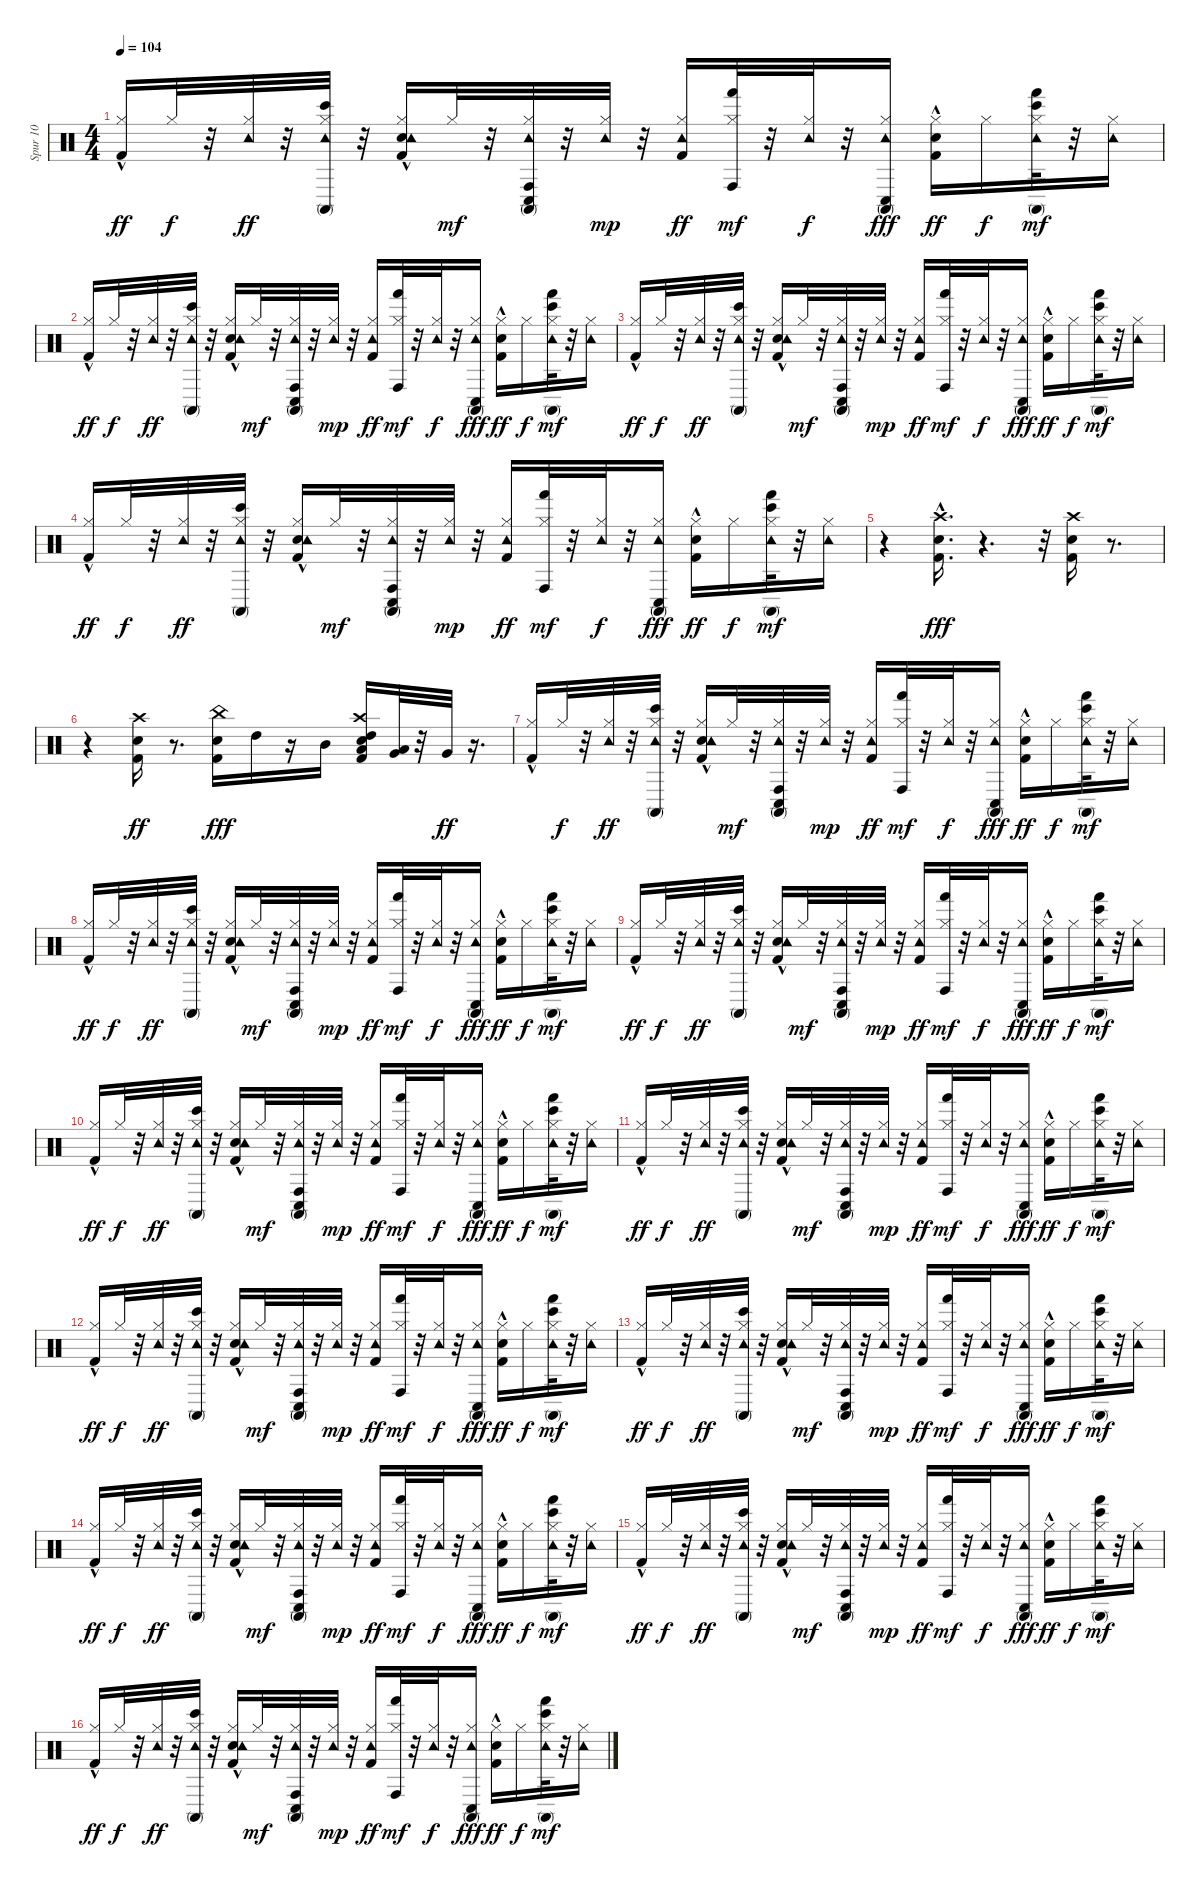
\track ("Spur 10" "Spur 10") {instrument percussion}
\staff {score}
\articulation defaults
\ts (4 4)
\tempo 104
\clef neutral
\ks c
("Kick (hit) 2"{hac} "Hi-Hat (closed)").16{dy ff} "Hi-Hat (closed)".32{dy f} r.32 ("Tambourine (hit)" "Hi-Hat (closed)").32{dy ff} r.32 ("Bongo High (hit)" "Conga high (mute)" "Tambourine (hit)" "Hi-Hat (closed)").32 r.32 ("Electric Snare (hit)" "Kick (hit) 2"{hac} "Tambourine (hit)" "Hi-Hat (closed)").16 "Hi-Hat (closed)".32{dy mf} r.32 ("Conga high (hit)" "Conga low (hit)" "Conga high (mute)" "Tambourine (hit)" "Hi-Hat (closed)").32 r.32 ("Tambourine (hit)" "Hi-Hat (closed)").32{dy mp} r.32 ("Kick (hit) 2" "Tambourine (hit)" "Hi-Hat (closed)").16{dy ff} ("Hand (hit)" "Conga high (hit)" "Hi-Hat (closed)").32{dy mf} r.32 ("Tambourine (hit)" "Hi-Hat (closed)").32{dy f} r.32 ("Conga high (mute)" "Conga low (hit)" "Tambourine (hit)" "Hi-Hat (closed)").16{dy fff} ("Electric Snare (hit)"{hac} "Kick (hit) 2" "Hi-Hat (closed)").16{dy ff} "Hi-Hat (closed)".16{dy f} ("Hand (hit)" "Bongo High (hit)" "Conga high (mute)" "Tambourine (hit)" "Hi-Hat (closed)").32{dy mf} r.32 ("Tambourine (hit)" "Hi-Hat (closed)").16 |
("Kick (hit) 2"{hac} "Hi-Hat (closed)").16{dy ff} "Hi-Hat (closed)".32{dy f} r.32 ("Tambourine (hit)" "Hi-Hat (closed)").32{dy ff} r.32 ("Bongo High (hit)" "Conga high (mute)" "Tambourine (hit)" "Hi-Hat (closed)").32 r.32 ("Electric Snare (hit)" "Kick (hit) 2"{hac} "Tambourine (hit)" "Hi-Hat (closed)").16 "Hi-Hat (closed)".32{dy mf} r.32 ("Conga high (hit)" "Conga low (hit)" "Conga high (mute)" "Tambourine (hit)" "Hi-Hat (closed)").32 r.32 ("Tambourine (hit)" "Hi-Hat (closed)").32{dy mp} r.32 ("Kick (hit) 2" "Tambourine (hit)" "Hi-Hat (closed)").16{dy ff} ("Hand (hit)" "Conga high (hit)" "Hi-Hat (closed)").32{dy mf} r.32 ("Tambourine (hit)" "Hi-Hat (closed)").32{dy f} r.32 ("Conga high (mute)" "Conga low (hit)" "Tambourine (hit)" "Hi-Hat (closed)").16{dy fff} ("Electric Snare (hit)"{hac} "Kick (hit) 2" "Hi-Hat (closed)").16{dy ff} "Hi-Hat (closed)".16{dy f} ("Hand (hit)" "Bongo High (hit)" "Conga high (mute)" "Tambourine (hit)" "Hi-Hat (closed)").32{dy mf} r.32 ("Tambourine (hit)" "Hi-Hat (closed)").16 |
("Kick (hit) 2"{hac} "Hi-Hat (closed)").16{dy ff} "Hi-Hat (closed)".32{dy f} r.32 ("Tambourine (hit)" "Hi-Hat (closed)").32{dy ff} r.32 ("Bongo High (hit)" "Conga high (mute)" "Tambourine (hit)" "Hi-Hat (closed)").32 r.32 ("Electric Snare (hit)" "Kick (hit) 2"{hac} "Tambourine (hit)" "Hi-Hat (closed)").16 "Hi-Hat (closed)".32{dy mf} r.32 ("Conga high (hit)" "Conga low (hit)" "Conga high (mute)" "Tambourine (hit)" "Hi-Hat (closed)").32 r.32 ("Tambourine (hit)" "Hi-Hat (closed)").32{dy mp} r.32 ("Kick (hit) 2" "Tambourine (hit)" "Hi-Hat (closed)").16{dy ff} ("Hand (hit)" "Conga high (hit)" "Hi-Hat (closed)").32{dy mf} r.32 ("Tambourine (hit)" "Hi-Hat (closed)").32{dy f} r.32 ("Conga high (mute)" "Conga low (hit)" "Tambourine (hit)" "Hi-Hat (closed)").16{dy fff} ("Electric Snare (hit)"{hac} "Kick (hit) 2" "Hi-Hat (closed)").16{dy ff} "Hi-Hat (closed)".16{dy f} ("Hand (hit)" "Bongo High (hit)" "Conga high (mute)" "Tambourine (hit)" "Hi-Hat (closed)").32{dy mf} r.32 ("Tambourine (hit)" "Hi-Hat (closed)").16 |
("Kick (hit) 2"{hac} "Hi-Hat (closed)").16{dy ff} "Hi-Hat (closed)".32{dy f} r.32 ("Tambourine (hit)" "Hi-Hat (closed)").32{dy ff} r.32 ("Bongo High (hit)" "Conga high (mute)" "Tambourine (hit)" "Hi-Hat (closed)").32 r.32 ("Electric Snare (hit)" "Kick (hit) 2"{hac} "Tambourine (hit)" "Hi-Hat (closed)").16 "Hi-Hat (closed)".32{dy mf} r.32 ("Conga high (hit)" "Conga low (hit)" "Conga high (mute)" "Tambourine (hit)" "Hi-Hat (closed)").32 r.32 ("Tambourine (hit)" "Hi-Hat (closed)").32{dy mp} r.32 ("Kick (hit) 2" "Tambourine (hit)" "Hi-Hat (closed)").16{dy ff} ("Hand (hit)" "Conga high (hit)" "Hi-Hat (closed)").32{dy mf} r.32 ("Tambourine (hit)" "Hi-Hat (closed)").32{dy f} r.32 ("Conga high (mute)" "Conga low (hit)" "Tambourine (hit)" "Hi-Hat (closed)").16{dy fff} ("Electric Snare (hit)"{hac} "Kick (hit) 2" "Hi-Hat (closed)").16{dy ff} "Hi-Hat (closed)".16{dy f} ("Hand (hit)" "Bongo High (hit)" "Conga high (mute)" "Tambourine (hit)" "Hi-Hat (closed)").32{dy mf} r.32 ("Tambourine (hit)" "Hi-Hat (closed)").16 |
r.4 ("Electric Snare (hit)"{hac} "Kick (hit) 2"{hac} "Crash high (hit)").16{d dy fff} r.4{d} r.32 ("Electric Snare (hit)" "Crash high (hit)" "Kick (hit) 2").16 r.8{d} |
r.4 ("Electric Snare (hit)" "Kick (hit) 2" "Crash high (hit)").16{dy ff} r.8{d} ("China (hit)" "Kick (hit) 2" "Electric Snare (hit)").16{dy fff} "High Tom (hit)".16 r.16 "Mid Tom (hit)".16 ("Crash high (hit)" "High Tom (hit)" "Low Tom (hit)" "Electric Snare (hit)" "Kick (hit) 2").16 ("Low Floor Tom (hit)" "Very Low Tom (hit)").32 r.32 "Very Low Tom (hit)".32{dy ff} r.16{d} |
("Kick (hit) 2"{hac} "Hi-Hat (closed)").16 "Hi-Hat (closed)".32{dy f} r.32 ("Tambourine (hit)" "Hi-Hat (closed)").32{dy ff} r.32 ("Bongo High (hit)" "Conga high (mute)" "Tambourine (hit)" "Hi-Hat (closed)").32 r.32 ("Electric Snare (hit)" "Kick (hit) 2"{hac} "Tambourine (hit)" "Hi-Hat (closed)").16 "Hi-Hat (closed)".32{dy mf} r.32 ("Conga high (hit)" "Conga low (hit)" "Conga high (mute)" "Tambourine (hit)" "Hi-Hat (closed)").32 r.32 ("Tambourine (hit)" "Hi-Hat (closed)").32{dy mp} r.32 ("Kick (hit) 2" "Tambourine (hit)" "Hi-Hat (closed)").16{dy ff} ("Hand (hit)" "Conga high (hit)" "Hi-Hat (closed)").32{dy mf} r.32 ("Tambourine (hit)" "Hi-Hat (closed)").32{dy f} r.32 ("Conga high (mute)" "Conga low (hit)" "Tambourine (hit)" "Hi-Hat (closed)").16{dy fff} ("Electric Snare (hit)"{hac} "Kick (hit) 2" "Hi-Hat (closed)").16{dy ff} "Hi-Hat (closed)".16{dy f} ("Hand (hit)" "Bongo High (hit)" "Conga high (mute)" "Tambourine (hit)" "Hi-Hat (closed)").32{dy mf} r.32 ("Tambourine (hit)" "Hi-Hat (closed)").16 |
("Kick (hit) 2"{hac} "Hi-Hat (closed)").16{dy ff} "Hi-Hat (closed)".32{dy f} r.32 ("Tambourine (hit)" "Hi-Hat (closed)").32{dy ff} r.32 ("Bongo High (hit)" "Conga high (mute)" "Tambourine (hit)" "Hi-Hat (closed)").32 r.32 ("Electric Snare (hit)" "Kick (hit) 2"{hac} "Tambourine (hit)" "Hi-Hat (closed)").16 "Hi-Hat (closed)".32{dy mf} r.32 ("Conga high (hit)" "Conga low (hit)" "Conga high (mute)" "Tambourine (hit)" "Hi-Hat (closed)").32 r.32 ("Tambourine (hit)" "Hi-Hat (closed)").32{dy mp} r.32 ("Kick (hit) 2" "Tambourine (hit)" "Hi-Hat (closed)").16{dy ff} ("Hand (hit)" "Conga high (hit)" "Hi-Hat (closed)").32{dy mf} r.32 ("Tambourine (hit)" "Hi-Hat (closed)").32{dy f} r.32 ("Conga high (mute)" "Conga low (hit)" "Tambourine (hit)" "Hi-Hat (closed)").16{dy fff} ("Electric Snare (hit)"{hac} "Kick (hit) 2" "Hi-Hat (closed)").16{dy ff} "Hi-Hat (closed)".16{dy f} ("Hand (hit)" "Bongo High (hit)" "Conga high (mute)" "Tambourine (hit)" "Hi-Hat (closed)").32{dy mf} r.32 ("Tambourine (hit)" "Hi-Hat (closed)").16 |
("Kick (hit) 2"{hac} "Hi-Hat (closed)").16{dy ff} "Hi-Hat (closed)".32{dy f} r.32 ("Tambourine (hit)" "Hi-Hat (closed)").32{dy ff} r.32 ("Bongo High (hit)" "Conga high (mute)" "Tambourine (hit)" "Hi-Hat (closed)").32 r.32 ("Electric Snare (hit)" "Kick (hit) 2"{hac} "Tambourine (hit)" "Hi-Hat (closed)").16 "Hi-Hat (closed)".32{dy mf} r.32 ("Conga high (hit)" "Conga low (hit)" "Conga high (mute)" "Tambourine (hit)" "Hi-Hat (closed)").32 r.32 ("Tambourine (hit)" "Hi-Hat (closed)").32{dy mp} r.32 ("Kick (hit) 2" "Tambourine (hit)" "Hi-Hat (closed)").16{dy ff} ("Hand (hit)" "Conga high (hit)" "Hi-Hat (closed)").32{dy mf} r.32 ("Tambourine (hit)" "Hi-Hat (closed)").32{dy f} r.32 ("Conga high (mute)" "Conga low (hit)" "Tambourine (hit)" "Hi-Hat (closed)").16{dy fff} ("Electric Snare (hit)"{hac} "Kick (hit) 2" "Hi-Hat (closed)").16{dy ff} "Hi-Hat (closed)".16{dy f} ("Hand (hit)" "Bongo High (hit)" "Conga high (mute)" "Tambourine (hit)" "Hi-Hat (closed)").32{dy mf} r.32 ("Tambourine (hit)" "Hi-Hat (closed)").16 |
("Kick (hit) 2"{hac} "Hi-Hat (closed)").16{dy ff} "Hi-Hat (closed)".32{dy f} r.32 ("Tambourine (hit)" "Hi-Hat (closed)").32{dy ff} r.32 ("Bongo High (hit)" "Conga high (mute)" "Tambourine (hit)" "Hi-Hat (closed)").32 r.32 ("Electric Snare (hit)" "Kick (hit) 2"{hac} "Tambourine (hit)" "Hi-Hat (closed)").16 "Hi-Hat (closed)".32{dy mf} r.32 ("Conga high (hit)" "Conga low (hit)" "Conga high (mute)" "Tambourine (hit)" "Hi-Hat (closed)").32 r.32 ("Tambourine (hit)" "Hi-Hat (closed)").32{dy mp} r.32 ("Kick (hit) 2" "Tambourine (hit)" "Hi-Hat (closed)").16{dy ff} ("Hand (hit)" "Conga high (hit)" "Hi-Hat (closed)").32{dy mf} r.32 ("Tambourine (hit)" "Hi-Hat (closed)").32{dy f} r.32 ("Conga high (mute)" "Conga low (hit)" "Tambourine (hit)" "Hi-Hat (closed)").16{dy fff} ("Electric Snare (hit)"{hac} "Kick (hit) 2" "Hi-Hat (closed)").16{dy ff} "Hi-Hat (closed)".16{dy f} ("Hand (hit)" "Bongo High (hit)" "Conga high (mute)" "Tambourine (hit)" "Hi-Hat (closed)").32{dy mf} r.32 ("Tambourine (hit)" "Hi-Hat (closed)").16 |
("Kick (hit) 2"{hac} "Hi-Hat (closed)").16{dy ff} "Hi-Hat (closed)".32{dy f} r.32 ("Tambourine (hit)" "Hi-Hat (closed)").32{dy ff} r.32 ("Bongo High (hit)" "Conga high (mute)" "Tambourine (hit)" "Hi-Hat (closed)").32 r.32 ("Electric Snare (hit)" "Kick (hit) 2"{hac} "Tambourine (hit)" "Hi-Hat (closed)").16 "Hi-Hat (closed)".32{dy mf} r.32 ("Conga high (hit)" "Conga low (hit)" "Conga high (mute)" "Tambourine (hit)" "Hi-Hat (closed)").32 r.32 ("Tambourine (hit)" "Hi-Hat (closed)").32{dy mp} r.32 ("Kick (hit) 2" "Tambourine (hit)" "Hi-Hat (closed)").16{dy ff} ("Hand (hit)" "Conga high (hit)" "Hi-Hat (closed)").32{dy mf} r.32 ("Tambourine (hit)" "Hi-Hat (closed)").32{dy f} r.32 ("Conga high (mute)" "Conga low (hit)" "Tambourine (hit)" "Hi-Hat (closed)").16{dy fff} ("Electric Snare (hit)"{hac} "Kick (hit) 2" "Hi-Hat (closed)").16{dy ff} "Hi-Hat (closed)".16{dy f} ("Hand (hit)" "Bongo High (hit)" "Conga high (mute)" "Tambourine (hit)" "Hi-Hat (closed)").32{dy mf} r.32 ("Tambourine (hit)" "Hi-Hat (closed)").16 |
("Kick (hit) 2"{hac} "Hi-Hat (closed)").16{dy ff} "Hi-Hat (closed)".32{dy f} r.32 ("Tambourine (hit)" "Hi-Hat (closed)").32{dy ff} r.32 ("Bongo High (hit)" "Conga high (mute)" "Tambourine (hit)" "Hi-Hat (closed)").32 r.32 ("Electric Snare (hit)" "Kick (hit) 2"{hac} "Tambourine (hit)" "Hi-Hat (closed)").16 "Hi-Hat (closed)".32{dy mf} r.32 ("Conga high (hit)" "Conga low (hit)" "Conga high (mute)" "Tambourine (hit)" "Hi-Hat (closed)").32 r.32 ("Tambourine (hit)" "Hi-Hat (closed)").32{dy mp} r.32 ("Kick (hit) 2" "Tambourine (hit)" "Hi-Hat (closed)").16{dy ff} ("Hand (hit)" "Conga high (hit)" "Hi-Hat (closed)").32{dy mf} r.32 ("Tambourine (hit)" "Hi-Hat (closed)").32{dy f} r.32 ("Conga high (mute)" "Conga low (hit)" "Tambourine (hit)" "Hi-Hat (closed)").16{dy fff} ("Electric Snare (hit)"{hac} "Kick (hit) 2" "Hi-Hat (closed)").16{dy ff} "Hi-Hat (closed)".16{dy f} ("Hand (hit)" "Bongo High (hit)" "Conga high (mute)" "Tambourine (hit)" "Hi-Hat (closed)").32{dy mf} r.32 ("Tambourine (hit)" "Hi-Hat (closed)").16 |
("Kick (hit) 2"{hac} "Hi-Hat (closed)").16{dy ff} "Hi-Hat (closed)".32{dy f} r.32 ("Tambourine (hit)" "Hi-Hat (closed)").32{dy ff} r.32 ("Bongo High (hit)" "Conga high (mute)" "Tambourine (hit)" "Hi-Hat (closed)").32 r.32 ("Electric Snare (hit)" "Kick (hit) 2"{hac} "Tambourine (hit)" "Hi-Hat (closed)").16 "Hi-Hat (closed)".32{dy mf} r.32 ("Conga high (hit)" "Conga low (hit)" "Conga high (mute)" "Tambourine (hit)" "Hi-Hat (closed)").32 r.32 ("Tambourine (hit)" "Hi-Hat (closed)").32{dy mp} r.32 ("Kick (hit) 2" "Tambourine (hit)" "Hi-Hat (closed)").16{dy ff} ("Hand (hit)" "Conga high (hit)" "Hi-Hat (closed)").32{dy mf} r.32 ("Tambourine (hit)" "Hi-Hat (closed)").32{dy f} r.32 ("Conga high (mute)" "Conga low (hit)" "Tambourine (hit)" "Hi-Hat (closed)").16{dy fff} ("Electric Snare (hit)"{hac} "Kick (hit) 2" "Hi-Hat (closed)").16{dy ff} "Hi-Hat (closed)".16{dy f} ("Hand (hit)" "Bongo High (hit)" "Conga high (mute)" "Tambourine (hit)" "Hi-Hat (closed)").32{dy mf} r.32 ("Tambourine (hit)" "Hi-Hat (closed)").16 |
("Kick (hit) 2"{hac} "Hi-Hat (closed)").16{dy ff} "Hi-Hat (closed)".32{dy f} r.32 ("Tambourine (hit)" "Hi-Hat (closed)").32{dy ff} r.32 ("Bongo High (hit)" "Conga high (mute)" "Tambourine (hit)" "Hi-Hat (closed)").32 r.32 ("Electric Snare (hit)" "Kick (hit) 2"{hac} "Tambourine (hit)" "Hi-Hat (closed)").16 "Hi-Hat (closed)".32{dy mf} r.32 ("Conga high (hit)" "Conga low (hit)" "Conga high (mute)" "Tambourine (hit)" "Hi-Hat (closed)").32 r.32 ("Tambourine (hit)" "Hi-Hat (closed)").32{dy mp} r.32 ("Kick (hit) 2" "Tambourine (hit)" "Hi-Hat (closed)").16{dy ff} ("Hand (hit)" "Conga high (hit)" "Hi-Hat (closed)").32{dy mf} r.32 ("Tambourine (hit)" "Hi-Hat (closed)").32{dy f} r.32 ("Conga high (mute)" "Conga low (hit)" "Tambourine (hit)" "Hi-Hat (closed)").16{dy fff} ("Electric Snare (hit)"{hac} "Kick (hit) 2" "Hi-Hat (closed)").16{dy ff} "Hi-Hat (closed)".16{dy f} ("Hand (hit)" "Bongo High (hit)" "Conga high (mute)" "Tambourine (hit)" "Hi-Hat (closed)").32{dy mf} r.32 ("Tambourine (hit)" "Hi-Hat (closed)").16 |
("Kick (hit) 2"{hac} "Hi-Hat (closed)").16{dy ff} "Hi-Hat (closed)".32{dy f} r.32 ("Tambourine (hit)" "Hi-Hat (closed)").32{dy ff} r.32 ("Bongo High (hit)" "Conga high (mute)" "Tambourine (hit)" "Hi-Hat (closed)").32 r.32 ("Electric Snare (hit)" "Kick (hit) 2"{hac} "Tambourine (hit)" "Hi-Hat (closed)").16 "Hi-Hat (closed)".32{dy mf} r.32 ("Conga high (hit)" "Conga low (hit)" "Conga high (mute)" "Tambourine (hit)" "Hi-Hat (closed)").32 r.32 ("Tambourine (hit)" "Hi-Hat (closed)").32{dy mp} r.32 ("Kick (hit) 2" "Tambourine (hit)" "Hi-Hat (closed)").16{dy ff} ("Hand (hit)" "Conga high (hit)" "Hi-Hat (closed)").32{dy mf} r.32 ("Tambourine (hit)" "Hi-Hat (closed)").32{dy f} r.32 ("Conga high (mute)" "Conga low (hit)" "Tambourine (hit)" "Hi-Hat (closed)").16{dy fff} ("Electric Snare (hit)"{hac} "Kick (hit) 2" "Hi-Hat (closed)").16{dy ff} "Hi-Hat (closed)".16{dy f} ("Hand (hit)" "Bongo High (hit)" "Conga high (mute)" "Tambourine (hit)" "Hi-Hat (closed)").32{dy mf} r.32 ("Tambourine (hit)" "Hi-Hat (closed)").16 |
("Kick (hit) 2"{hac} "Hi-Hat (closed)").16{dy ff} "Hi-Hat (closed)".32{dy f} r.32 ("Tambourine (hit)" "Hi-Hat (closed)").32{dy ff} r.32 ("Bongo High (hit)" "Conga high (mute)" "Tambourine (hit)" "Hi-Hat (closed)").32 r.32 ("Electric Snare (hit)" "Kick (hit) 2"{hac} "Tambourine (hit)" "Hi-Hat (closed)").16 "Hi-Hat (closed)".32{dy mf} r.32 ("Conga high (hit)" "Conga low (hit)" "Conga high (mute)" "Tambourine (hit)" "Hi-Hat (closed)").32 r.32 ("Tambourine (hit)" "Hi-Hat (closed)").32{dy mp} r.32 ("Kick (hit) 2" "Tambourine (hit)" "Hi-Hat (closed)").16{dy ff} ("Hand (hit)" "Conga high (hit)" "Hi-Hat (closed)").32{dy mf} r.32 ("Tambourine (hit)" "Hi-Hat (closed)").32{dy f} r.32 ("Conga high (mute)" "Conga low (hit)" "Tambourine (hit)" "Hi-Hat (closed)").16{dy fff} ("Electric Snare (hit)"{hac} "Kick (hit) 2" "Hi-Hat (closed)").16{dy ff} "Hi-Hat (closed)".16{dy f} ("Hand (hit)" "Bongo High (hit)" "Conga high (mute)" "Tambourine (hit)" "Hi-Hat (closed)").32{dy mf} r.32 ("Tambourine (hit)" "Hi-Hat (closed)").16
